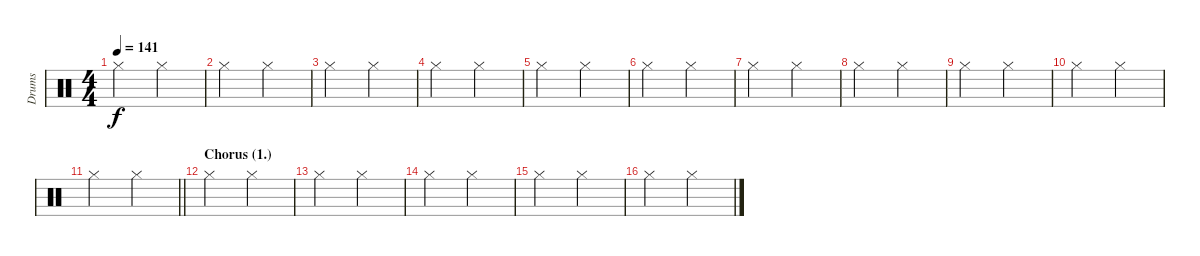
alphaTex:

\track ("Drums" "Drums") {instrument percussion}
\staff {score}
\articulation defaults
\ts (4 4)
\tempo 141
\clef neutral
\ks c "Hi-Hat (closed)".2{dy f} "Hi-Hat (closed)".2
|
"Hi-Hat (closed)".2 "Hi-Hat (closed)".2 |
"Hi-Hat (closed)".2 "Hi-Hat (closed)".2 |
"Hi-Hat (closed)".2 "Hi-Hat (closed)".2 |
"Hi-Hat (closed)".2 "Hi-Hat (closed)".2 |
"Hi-Hat (closed)".2 "Hi-Hat (closed)".2 |
"Hi-Hat (closed)".2 "Hi-Hat (closed)".2 |
"Hi-Hat (closed)".2 "Hi-Hat (closed)".2 |
"Hi-Hat (closed)".2 "Hi-Hat (closed)".2 |
"Hi-Hat (closed)".2 "Hi-Hat (closed)".2 |
\barLineRight lightlight "Hi-Hat (closed)".2 "Hi-Hat (closed)".2
|
\section ("" "Chorus (1.)")
"Hi-Hat (closed)".2{volume 5} "Hi-Hat (closed)".2 |
"Hi-Hat (closed)".2 "Hi-Hat (closed)".2 |
"Hi-Hat (closed)".2 "Hi-Hat (closed)".2 |
"Hi-Hat (closed)".2 "Hi-Hat (closed)".2 |
"Hi-Hat (closed)".2 "Hi-Hat (closed)".2
